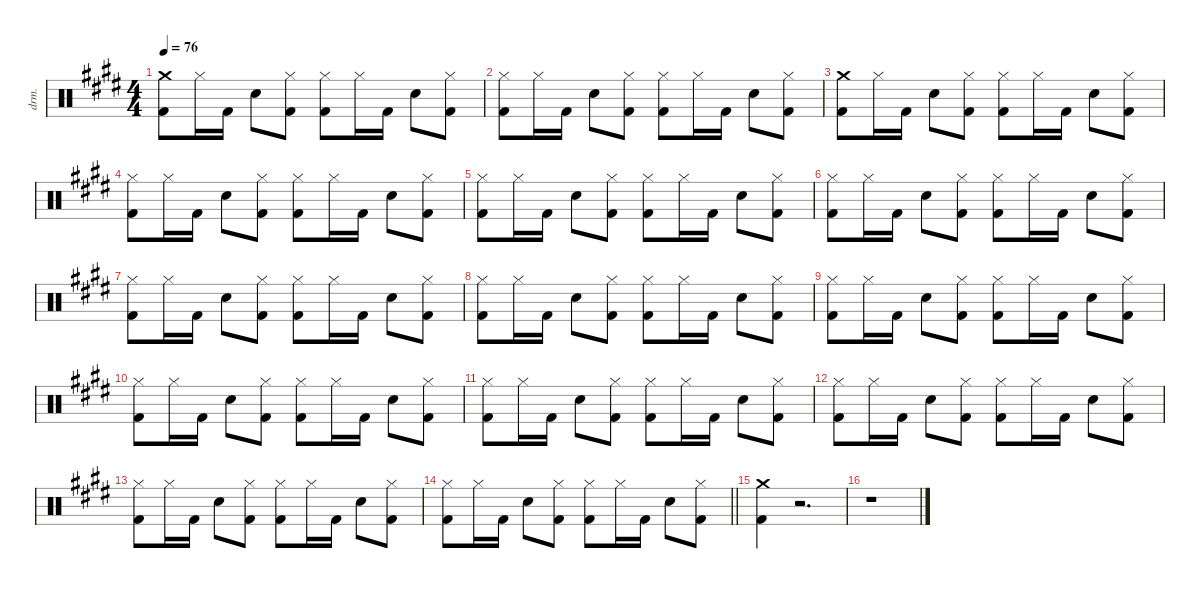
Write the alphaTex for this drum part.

\defaultSystemsLayout 4
\hideDynamics
\bracketExtendMode nobrackets
\otherSystemsTrackNameOrientation horizontal
\track ("Drums" "drm.") {defaultSystemsLayout 4 instrument percussion}
\staff {score}
\articulation defaults
\ts (4 4)
\tempo 76
\clef neutral
\ks e
("Crash medium (hit)"{acc forcenatural} "Kick (hit) 2"{acc forcenatural}).8{dy f beam Down} "Hi-Hat (closed)"{acc forcenatural}.16{beam Down} "Kick (hit) 2"{acc forcenatural}.16{beam Down} "Snare (hit) 2"{acc forcenatural}.8{beam Down} ("Hi-Hat (closed)"{acc forcenatural} "Kick (hit) 2"{acc forcenatural}).8{beam Down} ("Hi-Hat (closed)"{acc forcenatural} "Kick (hit) 2"{acc forcenatural}).8{beam Down} "Hi-Hat (closed)"{acc forcenatural}.16{beam Down} "Kick (hit) 2"{acc forcenatural}.16{beam Down} "Snare (hit) 2"{acc forcenatural}.8{beam Down} ("Hi-Hat (closed)"{acc forcenatural} "Kick (hit) 2"{acc forcenatural}).8{beam Down} |
("Hi-Hat (closed)"{acc forcenatural} "Kick (hit) 2"{acc forcenatural}).8{beam Down} "Hi-Hat (closed)"{acc forcenatural}.16{beam Down} "Kick (hit) 2"{acc forcenatural}.16{beam Down} "Snare (hit) 2"{acc forcenatural}.8{beam Down} ("Hi-Hat (closed)"{acc forcenatural} "Kick (hit) 2"{acc forcenatural}).8{beam Down} ("Hi-Hat (closed)"{acc forcenatural} "Kick (hit) 2"{acc forcenatural}).8{beam Down} "Hi-Hat (closed)"{acc forcenatural}.16{beam Down} "Kick (hit) 2"{acc forcenatural}.16{beam Down} "Snare (hit) 2"{acc forcenatural}.8{beam Down} ("Hi-Hat (closed)"{acc forcenatural} "Kick (hit) 2"{acc forcenatural}).8{beam Down} |
("Crash medium (hit)"{acc forcenatural} "Kick (hit) 2"{acc forcenatural}).8{beam Down} "Hi-Hat (closed)"{acc forcenatural}.16{beam Down} "Kick (hit) 2"{acc forcenatural}.16{beam Down} "Snare (hit) 2"{acc forcenatural}.8{beam Down} ("Hi-Hat (closed)"{acc forcenatural} "Kick (hit) 2"{acc forcenatural}).8{beam Down} ("Hi-Hat (closed)"{acc forcenatural} "Kick (hit) 2"{acc forcenatural}).8{beam Down} "Hi-Hat (closed)"{acc forcenatural}.16{beam Down} "Kick (hit) 2"{acc forcenatural}.16{beam Down} "Snare (hit) 2"{acc forcenatural}.8{beam Down} ("Hi-Hat (closed)"{acc forcenatural} "Kick (hit) 2"{acc forcenatural}).8{beam Down} |
("Hi-Hat (closed)"{acc forcenatural} "Kick (hit) 2"{acc forcenatural}).8{beam Down} "Hi-Hat (closed)"{acc forcenatural}.16{beam Down} "Kick (hit) 2"{acc forcenatural}.16{beam Down} "Snare (hit) 2"{acc forcenatural}.8{beam Down} ("Hi-Hat (closed)"{acc forcenatural} "Kick (hit) 2"{acc forcenatural}).8{beam Down} ("Hi-Hat (closed)"{acc forcenatural} "Kick (hit) 2"{acc forcenatural}).8{beam Down} "Hi-Hat (closed)"{acc forcenatural}.16{beam Down} "Kick (hit) 2"{acc forcenatural}.16{beam Down} "Snare (hit) 2"{acc forcenatural}.8{beam Down} ("Hi-Hat (closed)"{acc forcenatural} "Kick (hit) 2"{acc forcenatural}).8{beam Down} |
("Hi-Hat (closed)"{acc forcenatural} "Kick (hit) 2"{acc forcenatural}).8{beam Down} "Hi-Hat (closed)"{acc forcenatural}.16{beam Down} "Kick (hit) 2"{acc forcenatural}.16{beam Down} "Snare (hit) 2"{acc forcenatural}.8{beam Down} ("Hi-Hat (closed)"{acc forcenatural} "Kick (hit) 2"{acc forcenatural}).8{beam Down} ("Hi-Hat (closed)"{acc forcenatural} "Kick (hit) 2"{acc forcenatural}).8{beam Down} "Hi-Hat (closed)"{acc forcenatural}.16{beam Down} "Kick (hit) 2"{acc forcenatural}.16{beam Down} "Snare (hit) 2"{acc forcenatural}.8{beam Down} ("Hi-Hat (closed)"{acc forcenatural} "Kick (hit) 2"{acc forcenatural}).8{beam Down} |
("Hi-Hat (closed)"{acc forcenatural} "Kick (hit) 2"{acc forcenatural}).8{beam Down} "Hi-Hat (closed)"{acc forcenatural}.16{beam Down} "Kick (hit) 2"{acc forcenatural}.16{beam Down} "Snare (hit) 2"{acc forcenatural}.8{beam Down} ("Hi-Hat (closed)"{acc forcenatural} "Kick (hit) 2"{acc forcenatural}).8{beam Down} ("Hi-Hat (closed)"{acc forcenatural} "Kick (hit) 2"{acc forcenatural}).8{beam Down} "Hi-Hat (closed)"{acc forcenatural}.16{beam Down} "Kick (hit) 2"{acc forcenatural}.16{beam Down} "Snare (hit) 2"{acc forcenatural}.8{beam Down} ("Hi-Hat (closed)"{acc forcenatural} "Kick (hit) 2"{acc forcenatural}).8{beam Down} |
("Hi-Hat (closed)"{acc forcenatural} "Kick (hit) 2"{acc forcenatural}).8{beam Down} "Hi-Hat (closed)"{acc forcenatural}.16{beam Down} "Kick (hit) 2"{acc forcenatural}.16{beam Down} "Snare (hit) 2"{acc forcenatural}.8{beam Down} ("Hi-Hat (closed)"{acc forcenatural} "Kick (hit) 2"{acc forcenatural}).8{beam Down} ("Hi-Hat (closed)"{acc forcenatural} "Kick (hit) 2"{acc forcenatural}).8{beam Down} "Hi-Hat (closed)"{acc forcenatural}.16{beam Down} "Kick (hit) 2"{acc forcenatural}.16{beam Down} "Snare (hit) 2"{acc forcenatural}.8{beam Down} ("Hi-Hat (closed)"{acc forcenatural} "Kick (hit) 2"{acc forcenatural}).8{beam Down} |
("Hi-Hat (closed)"{acc forcenatural} "Kick (hit) 2"{acc forcenatural}).8{beam Down} "Hi-Hat (closed)"{acc forcenatural}.16{beam Down} "Kick (hit) 2"{acc forcenatural}.16{beam Down} "Snare (hit) 2"{acc forcenatural}.8{beam Down} ("Hi-Hat (closed)"{acc forcenatural} "Kick (hit) 2"{acc forcenatural}).8{beam Down} ("Hi-Hat (closed)"{acc forcenatural} "Kick (hit) 2"{acc forcenatural}).8{beam Down} "Hi-Hat (closed)"{acc forcenatural}.16{beam Down} "Kick (hit) 2"{acc forcenatural}.16{beam Down} "Snare (hit) 2"{acc forcenatural}.8{beam Down} ("Hi-Hat (closed)"{acc forcenatural} "Kick (hit) 2"{acc forcenatural}).8{beam Down} |
("Hi-Hat (closed)"{acc forcenatural} "Kick (hit) 2"{acc forcenatural}).8{beam Down} "Hi-Hat (closed)"{acc forcenatural}.16{beam Down} "Kick (hit) 2"{acc forcenatural}.16{beam Down} "Snare (hit) 2"{acc forcenatural}.8{beam Down} ("Hi-Hat (closed)"{acc forcenatural} "Kick (hit) 2"{acc forcenatural}).8{beam Down} ("Hi-Hat (closed)"{acc forcenatural} "Kick (hit) 2"{acc forcenatural}).8{beam Down} "Hi-Hat (closed)"{acc forcenatural}.16{beam Down} "Kick (hit) 2"{acc forcenatural}.16{beam Down} "Snare (hit) 2"{acc forcenatural}.8{beam Down} ("Hi-Hat (closed)"{acc forcenatural} "Kick (hit) 2"{acc forcenatural}).8{beam Down} |
("Hi-Hat (closed)"{acc forcenatural} "Kick (hit) 2"{acc forcenatural}).8{beam Down} "Hi-Hat (closed)"{acc forcenatural}.16{beam Down} "Kick (hit) 2"{acc forcenatural}.16{beam Down} "Snare (hit) 2"{acc forcenatural}.8{beam Down} ("Hi-Hat (closed)"{acc forcenatural} "Kick (hit) 2"{acc forcenatural}).8{beam Down} ("Hi-Hat (closed)"{acc forcenatural} "Kick (hit) 2"{acc forcenatural}).8{beam Down} "Hi-Hat (closed)"{acc forcenatural}.16{beam Down} "Kick (hit) 2"{acc forcenatural}.16{beam Down} "Snare (hit) 2"{acc forcenatural}.8{beam Down} ("Hi-Hat (closed)"{acc forcenatural} "Kick (hit) 2"{acc forcenatural}).8{beam Down} |
("Hi-Hat (closed)"{acc forcenatural} "Kick (hit) 2"{acc forcenatural}).8{beam Down} "Hi-Hat (closed)"{acc forcenatural}.16{beam Down} "Kick (hit) 2"{acc forcenatural}.16{beam Down} "Snare (hit) 2"{acc forcenatural}.8{beam Down} ("Hi-Hat (closed)"{acc forcenatural} "Kick (hit) 2"{acc forcenatural}).8{beam Down} ("Hi-Hat (closed)"{acc forcenatural} "Kick (hit) 2"{acc forcenatural}).8{beam Down} "Hi-Hat (closed)"{acc forcenatural}.16{beam Down} "Kick (hit) 2"{acc forcenatural}.16{beam Down} "Snare (hit) 2"{acc forcenatural}.8{beam Down} ("Hi-Hat (closed)"{acc forcenatural} "Kick (hit) 2"{acc forcenatural}).8{beam Down} |
("Hi-Hat (closed)"{acc forcenatural} "Kick (hit) 2"{acc forcenatural}).8{beam Down} "Hi-Hat (closed)"{acc forcenatural}.16{beam Down} "Kick (hit) 2"{acc forcenatural}.16{beam Down} "Snare (hit) 2"{acc forcenatural}.8{beam Down} ("Hi-Hat (closed)"{acc forcenatural} "Kick (hit) 2"{acc forcenatural}).8{beam Down} ("Hi-Hat (closed)"{acc forcenatural} "Kick (hit) 2"{acc forcenatural}).8{beam Down} "Hi-Hat (closed)"{acc forcenatural}.16{beam Down} "Kick (hit) 2"{acc forcenatural}.16{beam Down} "Snare (hit) 2"{acc forcenatural}.8{beam Down} ("Hi-Hat (closed)"{acc forcenatural} "Kick (hit) 2"{acc forcenatural}).8{beam Down} |
("Hi-Hat (closed)"{acc forcenatural} "Kick (hit) 2"{acc forcenatural}).8{beam Down} "Hi-Hat (closed)"{acc forcenatural}.16{beam Down} "Kick (hit) 2"{acc forcenatural}.16{beam Down} "Snare (hit) 2"{acc forcenatural}.8{beam Down} ("Hi-Hat (closed)"{acc forcenatural} "Kick (hit) 2"{acc forcenatural}).8{beam Down} ("Hi-Hat (closed)"{acc forcenatural} "Kick (hit) 2"{acc forcenatural}).8{beam Down} "Hi-Hat (closed)"{acc forcenatural}.16{beam Down} "Kick (hit) 2"{acc forcenatural}.16{beam Down} "Snare (hit) 2"{acc forcenatural}.8{beam Down} ("Hi-Hat (closed)"{acc forcenatural} "Kick (hit) 2"{acc forcenatural}).8{beam Down} |
\barLineRight lightlight
("Hi-Hat (closed)"{acc forcenatural} "Kick (hit) 2"{acc forcenatural}).8{beam Down} "Hi-Hat (closed)"{acc forcenatural}.16{beam Down} "Kick (hit) 2"{acc forcenatural}.16{beam Down} "Snare (hit) 2"{acc forcenatural}.8{beam Down} ("Hi-Hat (closed)"{acc forcenatural} "Kick (hit) 2"{acc forcenatural}).8{beam Down} ("Hi-Hat (closed)"{acc forcenatural} "Kick (hit) 2"{acc forcenatural}).8{beam Down} "Hi-Hat (closed)"{acc forcenatural}.16{beam Down} "Kick (hit) 2"{acc forcenatural}.16{beam Down} "Snare (hit) 2"{acc forcenatural}.8{beam Down} ("Hi-Hat (closed)"{acc forcenatural} "Kick (hit) 2"{acc forcenatural}).8{beam Down} |
("Crash medium (hit)"{acc forcenatural} "Kick (hit) 2"{acc forcenatural}).4{beam Down} r.2{d beam Down} |
r.1{beam Down}
